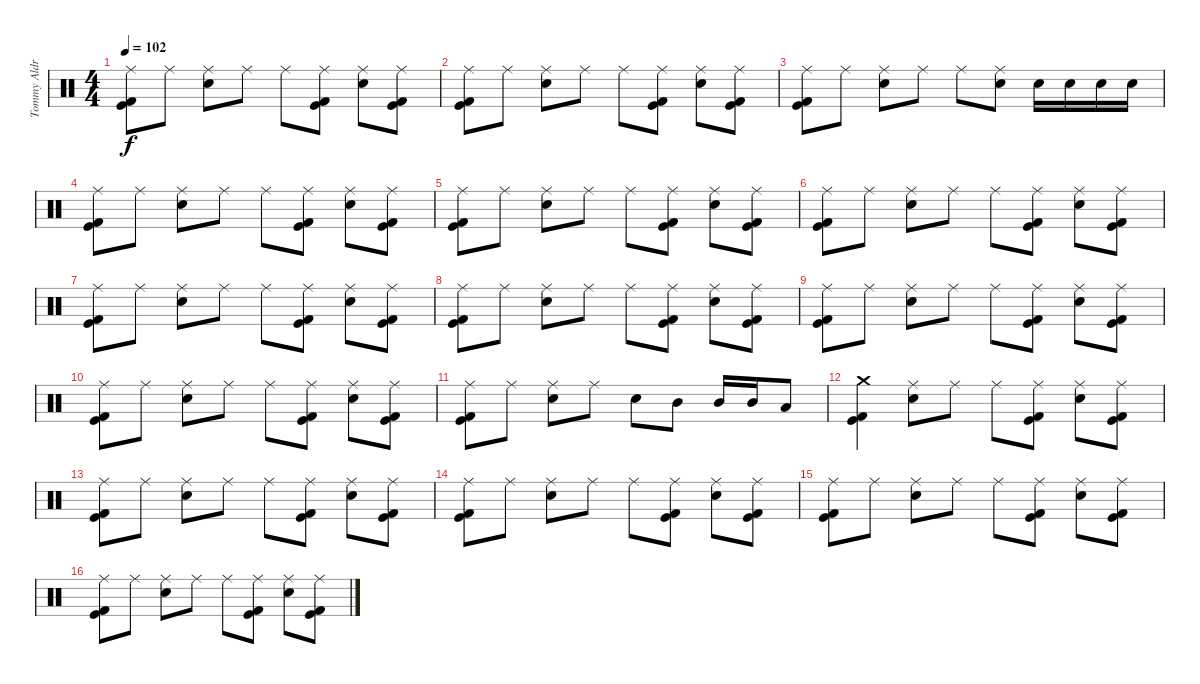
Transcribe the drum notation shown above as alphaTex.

\track ("Tommy Aldridge" "Tommy Aldr") {instrument percussion}
\staff {score}
\articulation defaults
\ts (4 4)
\tempo 102
\clef neutral
\ks c
("Ride (middle)" "Kick (hit)" "Kick (hit) 2").8{dy f} "Ride (middle)".8 ("Ride (middle)" "Electric Snare (hit)").8 "Ride (middle)".8 "Ride (middle)".8 ("Ride (middle)" "Kick (hit)" "Kick (hit) 2").8 ("Ride (middle)" "Electric Snare (hit)").8 ("Ride (middle)" "Kick (hit)" "Kick (hit) 2").8 |
("Ride (middle)" "Kick (hit)" "Kick (hit) 2").8 "Ride (middle)".8 ("Ride (middle)" "Electric Snare (hit)").8 "Ride (middle)".8 "Ride (middle)".8 ("Ride (middle)" "Kick (hit)" "Kick (hit) 2").8 ("Ride (middle)" "Electric Snare (hit)").8 ("Ride (middle)" "Kick (hit)" "Kick (hit) 2").8 |
("Ride (middle)" "Kick (hit)" "Kick (hit) 2").8 "Ride (middle)".8 ("Ride (middle)" "Electric Snare (hit)").8 "Ride (middle)".8 "Ride (middle)".8 ("Ride (middle)" "Electric Snare (hit)").8 "Electric Snare (hit)".16 "Electric Snare (hit)".16 "Electric Snare (hit)".16 "Electric Snare (hit)".16 |
("Ride (middle)" "Kick (hit)" "Kick (hit) 2").8 "Ride (middle)".8 ("Ride (middle)" "Electric Snare (hit)").8 "Ride (middle)".8 "Ride (middle)".8 ("Ride (middle)" "Kick (hit)" "Kick (hit) 2").8 ("Ride (middle)" "Electric Snare (hit)").8 ("Ride (middle)" "Kick (hit)" "Kick (hit) 2").8 |
("Ride (middle)" "Kick (hit)" "Kick (hit) 2").8 "Ride (middle)".8 ("Ride (middle)" "Electric Snare (hit)").8 "Ride (middle)".8 "Ride (middle)".8 ("Ride (middle)" "Kick (hit)" "Kick (hit) 2").8 ("Ride (middle)" "Electric Snare (hit)").8 ("Ride (middle)" "Kick (hit)" "Kick (hit) 2").8 |
("Ride (middle)" "Kick (hit)" "Kick (hit) 2").8 "Ride (middle)".8 ("Ride (middle)" "Electric Snare (hit)").8 "Ride (middle)".8 "Ride (middle)".8 ("Ride (middle)" "Kick (hit)" "Kick (hit) 2").8 ("Ride (middle)" "Electric Snare (hit)").8 ("Ride (middle)" "Kick (hit)" "Kick (hit) 2").8 |
("Ride (middle)" "Kick (hit)" "Kick (hit) 2").8 "Ride (middle)".8 ("Ride (middle)" "Electric Snare (hit)").8 "Ride (middle)".8 "Ride (middle)".8 ("Ride (middle)" "Kick (hit)" "Kick (hit) 2").8 ("Ride (middle)" "Electric Snare (hit)").8 ("Ride (middle)" "Kick (hit)" "Kick (hit) 2").8 |
("Ride (middle)" "Kick (hit)" "Kick (hit) 2").8 "Ride (middle)".8 ("Ride (middle)" "Electric Snare (hit)").8 "Ride (middle)".8 "Ride (middle)".8 ("Ride (middle)" "Kick (hit)" "Kick (hit) 2").8 ("Ride (middle)" "Electric Snare (hit)").8 ("Ride (middle)" "Kick (hit)" "Kick (hit) 2").8 |
("Ride (middle)" "Kick (hit)" "Kick (hit) 2").8 "Ride (middle)".8 ("Ride (middle)" "Electric Snare (hit)").8 "Ride (middle)".8 "Ride (middle)".8 ("Ride (middle)" "Kick (hit)" "Kick (hit) 2").8 ("Ride (middle)" "Electric Snare (hit)").8 ("Ride (middle)" "Kick (hit)" "Kick (hit) 2").8 |
("Ride (middle)" "Kick (hit)" "Kick (hit) 2").8 "Ride (middle)".8 ("Ride (middle)" "Electric Snare (hit)").8 "Ride (middle)".8 "Ride (middle)".8 ("Ride (middle)" "Kick (hit)" "Kick (hit) 2").8 ("Ride (middle)" "Electric Snare (hit)").8 ("Ride (middle)" "Kick (hit)" "Kick (hit) 2").8 |
("Ride (middle)" "Kick (hit)" "Kick (hit) 2").8 "Ride (middle)".8 ("Ride (middle)" "Electric Snare (hit)").8 "Ride (middle)".8 "Electric Snare (hit)".8 "Mid Tom (hit)".8 "Mid Tom (hit)".16 "Mid Tom (hit)".16 "Low Tom (hit)".8 |
("Crash medium (hit)" "Kick (hit)" "Kick (hit) 2").4 ("Ride (middle)" "Electric Snare (hit)").8 "Ride (middle)".8 "Ride (middle)".8 ("Ride (middle)" "Kick (hit)" "Kick (hit) 2").8 ("Ride (middle)" "Electric Snare (hit)").8 ("Ride (middle)" "Kick (hit)" "Kick (hit) 2").8 |
("Ride (middle)" "Kick (hit)" "Kick (hit) 2").8 "Ride (middle)".8 ("Ride (middle)" "Electric Snare (hit)").8 "Ride (middle)".8 "Ride (middle)".8 ("Ride (middle)" "Kick (hit)" "Kick (hit) 2").8 ("Ride (middle)" "Electric Snare (hit)").8 ("Ride (middle)" "Kick (hit)" "Kick (hit) 2").8 |
("Ride (middle)" "Kick (hit)" "Kick (hit) 2").8 "Ride (middle)".8 ("Ride (middle)" "Electric Snare (hit)").8 "Ride (middle)".8 "Ride (middle)".8 ("Ride (middle)" "Kick (hit)" "Kick (hit) 2").8 ("Ride (middle)" "Electric Snare (hit)").8 ("Ride (middle)" "Kick (hit)" "Kick (hit) 2").8 |
("Ride (middle)" "Kick (hit)" "Kick (hit) 2").8 "Ride (middle)".8 ("Ride (middle)" "Electric Snare (hit)").8 "Ride (middle)".8 "Ride (middle)".8 ("Ride (middle)" "Kick (hit)" "Kick (hit) 2").8 ("Ride (middle)" "Electric Snare (hit)").8 ("Ride (middle)" "Kick (hit)" "Kick (hit) 2").8 |
("Ride (middle)" "Kick (hit)" "Kick (hit) 2").8 "Ride (middle)".8 ("Ride (middle)" "Electric Snare (hit)").8 "Ride (middle)".8 "Ride (middle)".8 ("Ride (middle)" "Kick (hit)" "Kick (hit) 2").8 ("Ride (middle)" "Electric Snare (hit)").8 ("Ride (middle)" "Kick (hit)" "Kick (hit) 2").8
